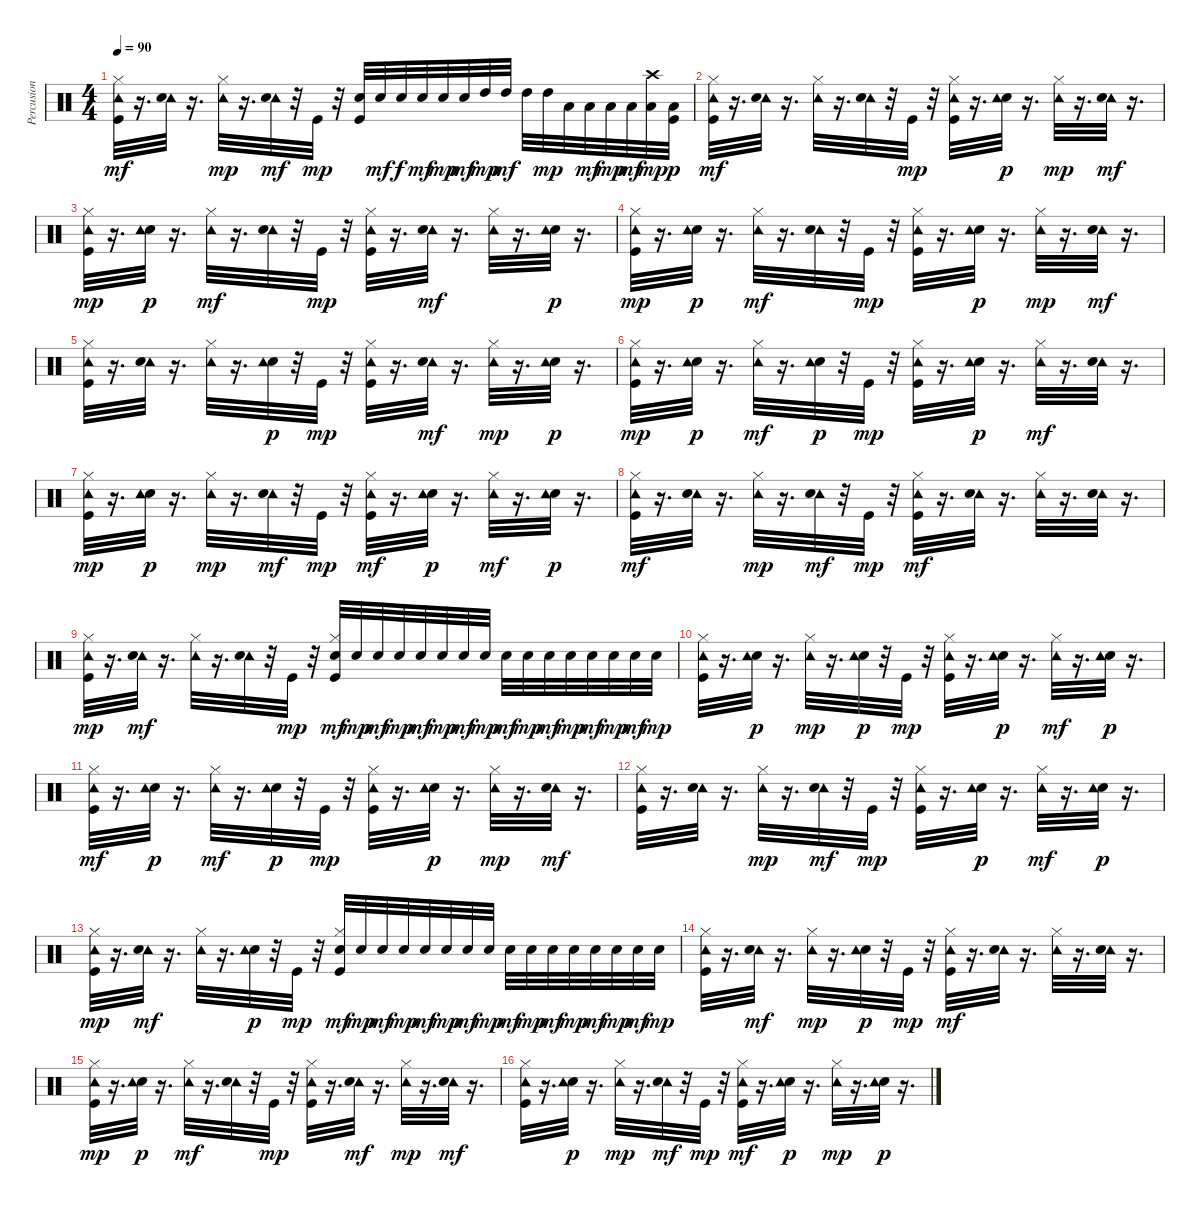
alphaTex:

\track ("Percusion" "Percusion") {instrument percussion}
\staff {score}
\articulation defaults
\ts (4 4)
\tempo 90
\clef neutral
\ks c
("Tambourine (hit)" "Kick (hit)" "Hi-Hat (closed)").32{dy mf} r.16{d} ("Tambourine (hit)" "Snare (hit) 2").32 r.16{d} ("Hi-Hat (closed)" "Tambourine (hit)").32{dy mp} r.16{d} ("Tambourine (hit)" "Snare (hit) 2").32{dy mf} r.32 "Kick (hit)".32{dy mp} r.32 ("Kick (hit)" "Snare (hit) 2").32 "Snare (hit) 2".32{dy mf} "Snare (hit) 2".32{dy f} "Snare (hit) 2".32{dy mf} "Snare (hit) 2".32{dy mp} "Snare (hit) 2".32{dy mf} "High Tom (hit)".32{dy mp} "High Tom (hit)".32{dy mf} "High Tom (hit)".32 "High Tom (hit)".32{dy mp} "Low Tom (hit)".32 "Low Tom (hit)".32{dy mf} "Low Tom (hit)".32{dy mp} "Low Tom (hit)".32{dy mf} ("Crash high (hit)" "Low Tom (hit)").32{dy mp} ("Kick (hit)" "Low Tom (hit)").32{dy p} |
("Tambourine (hit)" "Kick (hit)" "Hi-Hat (closed)").32{dy mf} r.16{d} ("Tambourine (hit)" "Snare (hit) 2").32 r.16{d} ("Tambourine (hit)" "Hi-Hat (closed)").32 r.16{d} ("Tambourine (hit)" "Snare (hit) 2").32 r.32 "Kick (hit)".32{dy mp} r.32 ("Tambourine (hit)" "Hi-Hat (closed)" "Kick (hit)").32 r.16{d} ("Snare (hit) 2" "Tambourine (hit)").32{dy p} r.16{d} ("Hi-Hat (closed)" "Tambourine (hit)").32{dy mp} r.16{d} ("Tambourine (hit)" "Snare (hit) 2").32{dy mf} r.16{d} |
("Tambourine (hit)" "Hi-Hat (closed)" "Kick (hit)").32{dy mp} r.16{d} ("Snare (hit) 2" "Tambourine (hit)").32{dy p} r.16{d} ("Tambourine (hit)" "Hi-Hat (closed)").32{dy mf} r.16{d} ("Tambourine (hit)" "Snare (hit) 2").32 r.32 "Kick (hit)".32{dy mp} r.32 ("Kick (hit)" "Hi-Hat (closed)" "Tambourine (hit)").32 r.16{d} ("Tambourine (hit)" "Snare (hit) 2").32{dy mf} r.16{d} ("Tambourine (hit)" "Hi-Hat (closed)").32 r.16{d} ("Snare (hit) 2" "Tambourine (hit)").32{dy p} r.16{d} |
("Hi-Hat (closed)" "Kick (hit)" "Tambourine (hit)").32{dy mp} r.16{d} ("Snare (hit) 2" "Tambourine (hit)").32{dy p} r.16{d} ("Tambourine (hit)" "Hi-Hat (closed)").32{dy mf} r.16{d} ("Tambourine (hit)" "Snare (hit) 2").32 r.32 "Kick (hit)".32{dy mp} r.32 ("Kick (hit)" "Hi-Hat (closed)" "Tambourine (hit)").32 r.16{d} ("Snare (hit) 2" "Tambourine (hit)").32{dy p} r.16{d} ("Hi-Hat (closed)" "Tambourine (hit)").32{dy mp} r.16{d} ("Tambourine (hit)" "Snare (hit) 2").32{dy mf} r.16{d} |
("Tambourine (hit)" "Kick (hit)" "Hi-Hat (closed)").32 r.16{d} ("Tambourine (hit)" "Snare (hit) 2").32 r.16{d} ("Tambourine (hit)" "Hi-Hat (closed)").32 r.16{d} ("Snare (hit) 2" "Tambourine (hit)").32{dy p} r.32 "Kick (hit)".32{dy mp} r.32 ("Tambourine (hit)" "Hi-Hat (closed)" "Kick (hit)").32 r.16{d} ("Tambourine (hit)" "Snare (hit) 2").32{dy mf} r.16{d} ("Hi-Hat (closed)" "Tambourine (hit)").32{dy mp} r.16{d} ("Snare (hit) 2" "Tambourine (hit)").32{dy p} r.16{d} |
("Hi-Hat (closed)" "Tambourine (hit)" "Kick (hit)").32{dy mp} r.16{d} ("Snare (hit) 2" "Tambourine (hit)").32{dy p} r.16{d} ("Tambourine (hit)" "Hi-Hat (closed)").32{dy mf} r.16{d} ("Snare (hit) 2" "Tambourine (hit)").32{dy p} r.32 "Kick (hit)".32{dy mp} r.32 ("Tambourine (hit)" "Hi-Hat (closed)" "Kick (hit)").32 r.16{d} ("Snare (hit) 2" "Tambourine (hit)").32{dy p} r.16{d} ("Tambourine (hit)" "Hi-Hat (closed)").32{dy mf} r.16{d} ("Tambourine (hit)" "Snare (hit) 2").32 r.16{d} |
("Kick (hit)" "Hi-Hat (closed)" "Tambourine (hit)").32{dy mp} r.16{d} ("Snare (hit) 2" "Tambourine (hit)").32{dy p} r.16{d} ("Hi-Hat (closed)" "Tambourine (hit)").32{dy mp} r.16{d} ("Tambourine (hit)" "Snare (hit) 2").32{dy mf} r.32 "Kick (hit)".32{dy mp} r.32 ("Tambourine (hit)" "Kick (hit)" "Hi-Hat (closed)").32{dy mf} r.16{d} ("Snare (hit) 2" "Tambourine (hit)").32{dy p} r.16{d} ("Tambourine (hit)" "Hi-Hat (closed)").32{dy mf} r.16{d} ("Snare (hit) 2" "Tambourine (hit)").32{dy p} r.16{d} |
("Tambourine (hit)" "Kick (hit)" "Hi-Hat (closed)").32{dy mf} r.16{d} ("Tambourine (hit)" "Snare (hit) 2").32 r.16{d} ("Hi-Hat (closed)" "Tambourine (hit)").32{dy mp} r.16{d} ("Tambourine (hit)" "Snare (hit) 2").32{dy mf} r.32 "Kick (hit)".32{dy mp} r.32 ("Kick (hit)" "Tambourine (hit)" "Hi-Hat (closed)").32{dy mf} r.16{d} ("Tambourine (hit)" "Snare (hit) 2").32 r.16{d} ("Tambourine (hit)" "Hi-Hat (closed)").32 r.16{d} ("Tambourine (hit)" "Snare (hit) 2").32 r.16{d} |
("Hi-Hat (closed)" "Tambourine (hit)" "Kick (hit)").32{dy mp} r.16{d} ("Tambourine (hit)" "Snare (hit) 2").32{dy mf} r.16{d} ("Tambourine (hit)" "Hi-Hat (closed)").32 r.16{d} ("Tambourine (hit)" "Snare (hit) 2").32 r.32 "Kick (hit)".32{dy mp} r.32 ("Kick (hit)" "Snare (hit) 2" "Hi-Hat (closed)").32{dy mf} "Snare (hit) 2".32{dy mp} "Snare (hit) 2".32{dy mf} "Snare (hit) 2".32{dy mp} "Snare (hit) 2".32{dy mf} "Snare (hit) 2".32{dy mp} "Snare (hit) 2".32{dy mf} "Snare (hit) 2".32{dy mp} "Snare (hit) 2".32{dy mf} "Snare (hit) 2".32{dy mp} "Snare (hit) 2".32{dy mf} "Snare (hit) 2".32{dy mp} "Snare (hit) 2".32{dy mf} "Snare (hit) 2".32{dy mp} "Snare (hit) 2".32{dy mf} "Snare (hit) 2".32{dy mp} |
("Kick (hit)" "Hi-Hat (closed)" "Tambourine (hit)").32 r.16{d} ("Snare (hit) 2" "Tambourine (hit)").32{dy p} r.16{d} ("Hi-Hat (closed)" "Tambourine (hit)").32{dy mp} r.16{d} ("Snare (hit) 2" "Tambourine (hit)").32{dy p} r.32 "Kick (hit)".32{dy mp} r.32 ("Tambourine (hit)" "Hi-Hat (closed)" "Kick (hit)").32 r.16{d} ("Snare (hit) 2" "Tambourine (hit)").32{dy p} r.16{d} ("Tambourine (hit)" "Hi-Hat (closed)").32{dy mf} r.16{d} ("Snare (hit) 2" "Tambourine (hit)").32{dy p} r.16{d} |
("Tambourine (hit)" "Kick (hit)" "Hi-Hat (closed)").32{dy mf} r.16{d} ("Snare (hit) 2" "Tambourine (hit)").32{dy p} r.16{d} ("Tambourine (hit)" "Hi-Hat (closed)").32{dy mf} r.16{d} ("Snare (hit) 2" "Tambourine (hit)").32{dy p} r.32 "Kick (hit)".32{dy mp} r.32 ("Hi-Hat (closed)" "Tambourine (hit)" "Kick (hit)").32 r.16{d} ("Snare (hit) 2" "Tambourine (hit)").32{dy p} r.16{d} ("Hi-Hat (closed)" "Tambourine (hit)").32{dy mp} r.16{d} ("Tambourine (hit)" "Snare (hit) 2").32{dy mf} r.16{d} |
("Kick (hit)" "Tambourine (hit)" "Hi-Hat (closed)").32 r.16{d} ("Tambourine (hit)" "Snare (hit) 2").32 r.16{d} ("Hi-Hat (closed)" "Tambourine (hit)").32{dy mp} r.16{d} ("Tambourine (hit)" "Snare (hit) 2").32{dy mf} r.32 "Kick (hit)".32{dy mp} r.32 ("Hi-Hat (closed)" "Kick (hit)" "Tambourine (hit)").32 r.16{d} ("Snare (hit) 2" "Tambourine (hit)").32{dy p} r.16{d} ("Tambourine (hit)" "Hi-Hat (closed)").32{dy mf} r.16{d} ("Snare (hit) 2" "Tambourine (hit)").32{dy p} r.16{d} |
("Hi-Hat (closed)" "Tambourine (hit)" "Kick (hit)").32{dy mp} r.16{d} ("Tambourine (hit)" "Snare (hit) 2").32{dy mf} r.16{d} ("Tambourine (hit)" "Hi-Hat (closed)").32 r.16{d} ("Snare (hit) 2" "Tambourine (hit)").32{dy p} r.32 "Kick (hit)".32{dy mp} r.32 ("Snare (hit) 2" "Kick (hit)" "Hi-Hat (closed)").32{dy mf} "Snare (hit) 2".32{dy mp} "Snare (hit) 2".32{dy mf} "Snare (hit) 2".32{dy mp} "Snare (hit) 2".32{dy mf} "Snare (hit) 2".32{dy mp} "Snare (hit) 2".32{dy mf} "Snare (hit) 2".32{dy mp} "Snare (hit) 2".32{dy mf} "Snare (hit) 2".32{dy mp} "Snare (hit) 2".32{dy mf} "Snare (hit) 2".32{dy mp} "Snare (hit) 2".32{dy mf} "Snare (hit) 2".32{dy mp} "Snare (hit) 2".32{dy mf} "Snare (hit) 2".32{dy mp} |
("Kick (hit)" "Hi-Hat (closed)" "Tambourine (hit)").32 r.16{d} ("Tambourine (hit)" "Snare (hit) 2").32{dy mf} r.16{d} ("Hi-Hat (closed)" "Tambourine (hit)").32{dy mp} r.16{d} ("Snare (hit) 2" "Tambourine (hit)").32{dy p} r.32 "Kick (hit)".32{dy mp} r.32 ("Tambourine (hit)" "Kick (hit)" "Hi-Hat (closed)").32{dy mf} r.16{d} ("Tambourine (hit)" "Snare (hit) 2").32 r.16{d} ("Tambourine (hit)" "Hi-Hat (closed)").32 r.16{d} ("Tambourine (hit)" "Snare (hit) 2").32 r.16{d} |
("Kick (hit)" "Hi-Hat (closed)" "Tambourine (hit)").32{dy mp} r.16{d} ("Snare (hit) 2" "Tambourine (hit)").32{dy p} r.16{d} ("Tambourine (hit)" "Hi-Hat (closed)").32{dy mf} r.16{d} ("Tambourine (hit)" "Snare (hit) 2").32 r.32 "Kick (hit)".32{dy mp} r.32 ("Hi-Hat (closed)" "Kick (hit)" "Tambourine (hit)").32 r.16{d} ("Tambourine (hit)" "Snare (hit) 2").32{dy mf} r.16{d} ("Hi-Hat (closed)" "Tambourine (hit)").32{dy mp} r.16{d} ("Tambourine (hit)" "Snare (hit) 2").32{dy mf} r.16{d} |
("Kick (hit)" "Tambourine (hit)" "Hi-Hat (closed)").32 r.16{d} ("Snare (hit) 2" "Tambourine (hit)").32{dy p} r.16{d} ("Hi-Hat (closed)" "Tambourine (hit)").32{dy mp} r.16{d} ("Tambourine (hit)" "Snare (hit) 2").32{dy mf} r.32 "Kick (hit)".32{dy mp} r.32 ("Kick (hit)" "Tambourine (hit)" "Hi-Hat (closed)").32{dy mf} r.16{d} ("Snare (hit) 2" "Tambourine (hit)").32{dy p} r.16{d} ("Hi-Hat (closed)" "Tambourine (hit)").32{dy mp} r.16{d} ("Snare (hit) 2" "Tambourine (hit)").32{dy p} r.16{d}
